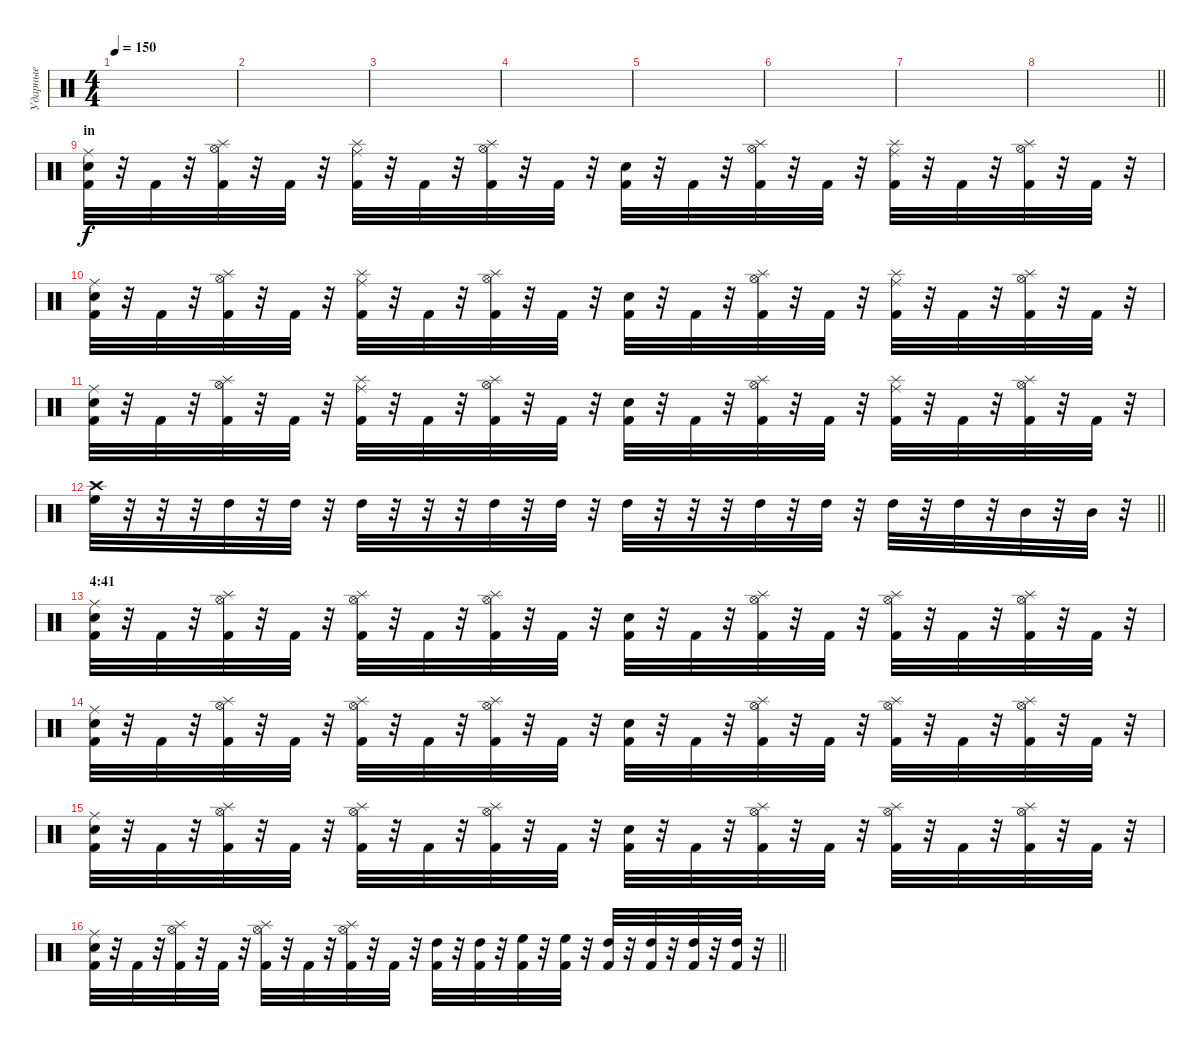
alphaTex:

\track ("Ударные" "Ударные") {instrument percussion}
\staff {score}
\articulation defaults
\ts (4 4)
\tempo 150
\clef neutral
\ks c
|
|
|
|
|
|
|
\barLineRight lightlight
|
\section ("" "in")
("Ride (middle)" "Electric Snare (hit)" "Kick (hit) 2").32{dy f} r.32 "Kick (hit) 2".32 r.32 ("Hi-Hat (open)" "Splash (hit)" "Kick (hit) 2").32 r.32 "Kick (hit) 2".32 r.32 ("Ride (middle)" "Splash (hit)" "Kick (hit) 2").32 r.32 "Kick (hit) 2".32 r.32 ("Hi-Hat (open)" "Splash (hit)" "Kick (hit) 2").32 r.32 "Kick (hit) 2".32 r.32 ("Electric Snare (hit)" "Kick (hit) 2").32 r.32 "Kick (hit) 2".32 r.32 ("Hi-Hat (open)" "Splash (hit)" "Kick (hit) 2").32 r.32 "Kick (hit) 2".32 r.32 ("Ride (middle)" "Splash (hit)" "Kick (hit) 2").32 r.32 "Kick (hit) 2".32 r.32 ("Hi-Hat (open)" "Splash (hit)" "Kick (hit) 2").32 r.32 "Kick (hit) 2".32 r.32 |
("Ride (middle)" "Electric Snare (hit)" "Kick (hit) 2").32 r.32 "Kick (hit) 2".32 r.32 ("Hi-Hat (open)" "Splash (hit)" "Kick (hit) 2").32 r.32 "Kick (hit) 2".32 r.32 ("Ride (middle)" "Splash (hit)" "Kick (hit) 2").32 r.32 "Kick (hit) 2".32 r.32 ("Hi-Hat (open)" "Splash (hit)" "Kick (hit) 2").32 r.32 "Kick (hit) 2".32 r.32 ("Electric Snare (hit)" "Kick (hit) 2").32 r.32 "Kick (hit) 2".32 r.32 ("Hi-Hat (open)" "Splash (hit)" "Kick (hit) 2").32 r.32 "Kick (hit) 2".32 r.32 ("Ride (middle)" "Splash (hit)" "Kick (hit) 2").32 r.32 "Kick (hit) 2".32 r.32 ("Hi-Hat (open)" "Splash (hit)" "Kick (hit) 2").32 r.32 "Kick (hit) 2".32 r.32 |
("Ride (middle)" "Electric Snare (hit)" "Kick (hit) 2").32 r.32 "Kick (hit) 2".32 r.32 ("Hi-Hat (open)" "Splash (hit)" "Kick (hit) 2").32 r.32 "Kick (hit) 2".32 r.32 ("Ride (middle)" "Splash (hit)" "Kick (hit) 2").32 r.32 "Kick (hit) 2".32 r.32 ("Hi-Hat (open)" "Splash (hit)" "Kick (hit) 2").32 r.32 "Kick (hit) 2".32 r.32 ("Electric Snare (hit)" "Kick (hit) 2").32 r.32 "Kick (hit) 2".32 r.32 ("Hi-Hat (open)" "Splash (hit)" "Kick (hit) 2").32 r.32 "Kick (hit) 2".32 r.32 ("Ride (middle)" "Splash (hit)" "Kick (hit) 2").32 r.32 "Kick (hit) 2".32 r.32 ("Hi-Hat (open)" "Splash (hit)" "Kick (hit) 2").32 r.32 "Kick (hit) 2".32 r.32 |
\barLineRight lightlight
("High Floor Tom (hit)" "Crash high (hit)").32 r.32 r.32 r.32 "High Tom (hit)".32 r.32 "High Tom (hit)".32 r.32 "High Tom (hit)".32 r.32 r.32 r.32 "High Tom (hit)".32 r.32 "High Tom (hit)".32 r.32 "High Tom (hit)".32 r.32 r.32 r.32 "High Tom (hit)".32 r.32 "High Tom (hit)".32 r.32 "High Tom (hit)".32 r.32 "High Tom (hit)".32 r.32 "Mid Tom (hit)".32 r.32 "Mid Tom (hit)".32 r.32 |
\section ("" "4:41")
("Ride (middle)" "Electric Snare (hit)" "Kick (hit) 2").32 r.32 "Kick (hit) 2".32 r.32 ("Hi-Hat (open)" "Splash (hit)" "Kick (hit) 2").32 r.32 "Kick (hit) 2".32 r.32 ("Hi-Hat (open)" "Splash (hit)" "Kick (hit) 2").32 r.32 "Kick (hit) 2".32 r.32 ("Hi-Hat (open)" "Splash (hit)" "Kick (hit) 2").32 r.32 "Kick (hit) 2".32 r.32 ("Electric Snare (hit)" "Kick (hit) 2").32 r.32 "Kick (hit) 2".32 r.32 ("Hi-Hat (open)" "Splash (hit)" "Kick (hit) 2").32 r.32 "Kick (hit) 2".32 r.32 ("Hi-Hat (open)" "Splash (hit)" "Kick (hit) 2").32 r.32 "Kick (hit) 2".32 r.32 ("Hi-Hat (open)" "Splash (hit)" "Kick (hit) 2").32 r.32 "Kick (hit) 2".32 r.32 |
("Ride (middle)" "Electric Snare (hit)" "Kick (hit) 2").32 r.32 "Kick (hit) 2".32 r.32 ("Hi-Hat (open)" "Splash (hit)" "Kick (hit) 2").32 r.32 "Kick (hit) 2".32 r.32 ("Hi-Hat (open)" "Splash (hit)" "Kick (hit) 2").32 r.32 "Kick (hit) 2".32 r.32 ("Hi-Hat (open)" "Splash (hit)" "Kick (hit) 2").32 r.32 "Kick (hit) 2".32 r.32 ("Electric Snare (hit)" "Kick (hit) 2").32 r.32 "Kick (hit) 2".32 r.32 ("Hi-Hat (open)" "Splash (hit)" "Kick (hit) 2").32 r.32 "Kick (hit) 2".32 r.32 ("Hi-Hat (open)" "Splash (hit)" "Kick (hit) 2").32 r.32 "Kick (hit) 2".32 r.32 ("Hi-Hat (open)" "Splash (hit)" "Kick (hit) 2").32 r.32 "Kick (hit) 2".32 r.32 |
("Ride (middle)" "Electric Snare (hit)" "Kick (hit) 2").32 r.32 "Kick (hit) 2".32 r.32 ("Hi-Hat (open)" "Splash (hit)" "Kick (hit) 2").32 r.32 "Kick (hit) 2".32 r.32 ("Hi-Hat (open)" "Splash (hit)" "Kick (hit) 2").32 r.32 "Kick (hit) 2".32 r.32 ("Hi-Hat (open)" "Splash (hit)" "Kick (hit) 2").32 r.32 "Kick (hit) 2".32 r.32 ("Electric Snare (hit)" "Kick (hit) 2").32 r.32 "Kick (hit) 2".32 r.32 ("Hi-Hat (open)" "Splash (hit)" "Kick (hit) 2").32 r.32 "Kick (hit) 2".32 r.32 ("Hi-Hat (open)" "Splash (hit)" "Kick (hit) 2").32 r.32 "Kick (hit) 2".32 r.32 ("Hi-Hat (open)" "Splash (hit)" "Kick (hit) 2").32 r.32 "Kick (hit) 2".32 r.32 |
\barLineRight lightlight
("Ride (middle)" "Electric Snare (hit)" "Kick (hit) 2").32 r.32 "Kick (hit) 2".32 r.32 ("Hi-Hat (open)" "Splash (hit)" "Kick (hit) 2").32 r.32 "Kick (hit) 2".32 r.32 ("Hi-Hat (open)" "Splash (hit)" "Kick (hit) 2").32 r.32 "Kick (hit) 2".32 r.32 ("Hi-Hat (open)" "Splash (hit)" "Kick (hit) 2").32 r.32 "Kick (hit) 2".32 r.32 ("High Tom (hit)" "Kick (hit) 2").32 r.32 ("High Tom (hit)" "Kick (hit) 2").32 r.32 ("High Floor Tom (hit)" "Kick (hit) 2").32 r.32 ("High Floor Tom (hit)" "Kick (hit) 2").32 r.32 ("High Tom (hit)" "Kick (hit) 2").32 r.32 ("High Tom (hit)" "Kick (hit) 2").32 r.32 ("High Tom (hit)" "Kick (hit) 2").32 r.32 ("High Tom (hit)" "Kick (hit) 2").32 r.32
